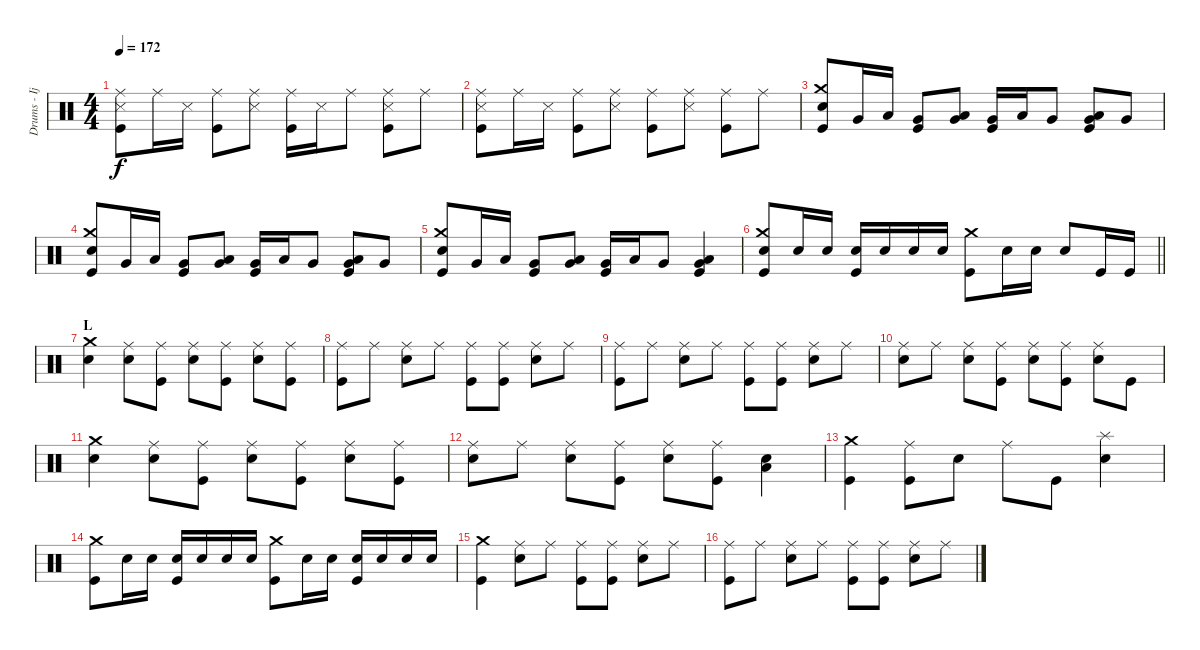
\track ("Drums - Ijichi" "Drums - Ij") {instrument percussion}
\staff {score}
\articulation defaults
\ts (4 4)
\tempo 172
\clef neutral
\ks c
("Ride (middle)" "Snare (side stick) 3" "Kick (hit)").8{dy f} "Ride (middle)".16 "Snare (side stick) 3".16 ("Ride (middle)" "Kick (hit)").8 ("Ride (middle)" "Snare (side stick) 3").8 ("Ride (middle)" "Kick (hit)").16 "Snare (side stick) 3".16 "Ride (middle)".8 ("Ride (middle)" "Snare (side stick) 3" "Kick (hit)").8 "Ride (middle)".8 |
("Ride (middle)" "Snare (side stick) 3" "Kick (hit)").8 "Ride (middle)".16 "Snare (side stick) 3".16 ("Ride (middle)" "Kick (hit)").8 ("Ride (middle)" "Snare (side stick) 3").8 ("Ride (middle)" "Kick (hit)").8 ("Ride (middle)" "Snare (side stick) 3").8 ("Ride (middle)" "Kick (hit)").8 "Ride (middle)".8 |
("Crash medium (hit)" "Electric Snare (hit)" "Kick (hit)").8 "Very Low Tom (hit)".16 "Low Tom (hit)".16 ("Very Low Tom (hit)" "Kick (hit)").8 ("Low Tom (hit)" "Very Low Tom (hit)").8 ("Very Low Tom (hit)" "Kick (hit)").16 "Low Tom (hit)".16 "Very Low Tom (hit)".8 ("Low Tom (hit)" "Very Low Tom (hit)" "Kick (hit)").8 "Very Low Tom (hit)".8 |
("Crash medium (hit)" "Electric Snare (hit)" "Kick (hit)").8 "Very Low Tom (hit)".16 "Low Tom (hit)".16 ("Very Low Tom (hit)" "Kick (hit)").8 ("Low Tom (hit)" "Very Low Tom (hit)").8 ("Very Low Tom (hit)" "Kick (hit)").16 "Low Tom (hit)".16 "Very Low Tom (hit)".8 ("Low Tom (hit)" "Very Low Tom (hit)" "Kick (hit)").8 "Very Low Tom (hit)".8 |
("Crash medium (hit)" "Electric Snare (hit)" "Kick (hit)").8 "Very Low Tom (hit)".16 "Low Tom (hit)".16 ("Very Low Tom (hit)" "Kick (hit)").8 ("Low Tom (hit)" "Very Low Tom (hit)").8 ("Very Low Tom (hit)" "Kick (hit)").16 "Low Tom (hit)".16 "Very Low Tom (hit)".8 ("Low Tom (hit)" "Very Low Tom (hit)" "Kick (hit)").4 |
\barLineRight lightlight
("Crash medium (hit)" "Electric Snare (hit)" "Kick (hit)").8 "Electric Snare (hit)".16 "Electric Snare (hit)".16 ("Electric Snare (hit)" "Kick (hit)").16 "Electric Snare (hit)".16 "Electric Snare (hit)".16 "Electric Snare (hit)".16 ("Crash medium (hit)" "Kick (hit)").8 "Electric Snare (hit)".16 "Electric Snare (hit)".16 "Electric Snare (hit)".8 "Kick (hit)".16 "Kick (hit)".16 |
\section ("" "L")
("Crash medium (hit)" "Electric Snare (hit)").4 ("Ride (middle)" "Electric Snare (hit)").8 ("Ride (middle)" "Kick (hit)").8 ("Ride (middle)" "Electric Snare (hit)").8 ("Ride (middle)" "Kick (hit)").8 ("Ride (middle)" "Electric Snare (hit)").8 ("Ride (middle)" "Kick (hit)").8 |
("Ride (middle)" "Kick (hit)").8 "Ride (middle)".8 ("Ride (middle)" "Electric Snare (hit)").8 "Ride (middle)".8 ("Ride (middle)" "Kick (hit)").8 ("Ride (middle)" "Kick (hit)").8 ("Ride (middle)" "Electric Snare (hit)").8 "Ride (middle)".8 |
("Ride (middle)" "Kick (hit)").8 "Ride (middle)".8 ("Ride (middle)" "Electric Snare (hit)").8 "Ride (middle)".8 ("Ride (middle)" "Kick (hit)").8 ("Ride (middle)" "Kick (hit)").8 ("Ride (middle)" "Electric Snare (hit)").8 "Ride (middle)".8 |
("Ride (middle)" "Electric Snare (hit)").8 "Ride (middle)".8 ("Ride (middle)" "Electric Snare (hit)").8 ("Ride (middle)" "Kick (hit)").8 ("Ride (middle)" "Electric Snare (hit)").8 ("Ride (middle)" "Kick (hit)").8 ("Ride (middle)" "Electric Snare (hit)").8 "Kick (hit)".8 |
("Crash medium (hit)" "Electric Snare (hit)").4 ("Ride (middle)" "Electric Snare (hit)").8 ("Ride (middle)" "Kick (hit)").8 ("Ride (middle)" "Electric Snare (hit)").8 ("Ride (middle)" "Kick (hit)").8 ("Ride (middle)" "Electric Snare (hit)").8 ("Ride (middle)" "Kick (hit)").8 |
("Ride (middle)" "Electric Snare (hit)").8 "Ride (middle)".8 ("Ride (middle)" "Electric Snare (hit)").8 ("Ride (middle)" "Kick (hit)").8 ("Ride (middle)" "Electric Snare (hit)").8 ("Ride (middle)" "Kick (hit)").8 ("Electric Snare (hit)" "Low Tom (hit)").4 |
("Crash medium (hit)" "Kick (hit)").4 ("Ride (middle)" "Kick (hit)").8 "Electric Snare (hit)".8 "Ride (middle)".8 "Kick (hit)".8 ("Splash (hit)" "Electric Snare (hit)").4 |
("Crash medium (hit)" "Kick (hit)").8 "Electric Snare (hit)".16 "Electric Snare (hit)".16 ("Electric Snare (hit)" "Kick (hit)").16 "Electric Snare (hit)".16 "Electric Snare (hit)".16 "Electric Snare (hit)".16 ("Crash medium (hit)" "Kick (hit)").8 "Electric Snare (hit)".16 "Electric Snare (hit)".16 ("Electric Snare (hit)" "Kick (hit)").16 "Electric Snare (hit)".16 "Electric Snare (hit)".16 "Electric Snare (hit)".16 |
("Crash medium (hit)" "Kick (hit)").4 ("Ride (middle)" "Electric Snare (hit)").8 "Ride (middle)".8 ("Ride (middle)" "Kick (hit)").8 ("Ride (middle)" "Kick (hit)").8 ("Ride (middle)" "Electric Snare (hit)").8 "Ride (middle)".8 |
("Ride (middle)" "Kick (hit)").8 "Ride (middle)".8 ("Ride (middle)" "Electric Snare (hit)").8 "Ride (middle)".8 ("Ride (middle)" "Kick (hit)").8 ("Ride (middle)" "Kick (hit)").8 ("Ride (middle)" "Electric Snare (hit)").8 "Ride (middle)".8
